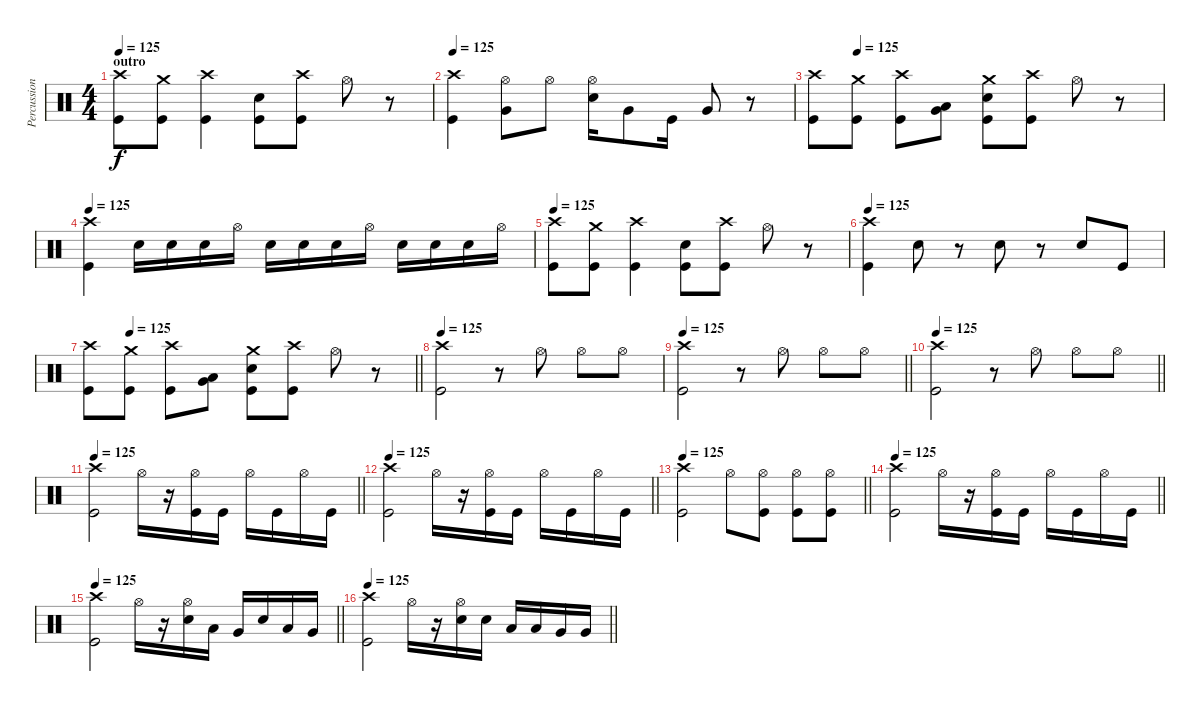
\track ("Percussions" "Percussion") {instrument percussion}
\staff {score}
\articulation defaults
\ts (4 4)
\section ("" "outro")
\tempo 125
\clef neutral
\ks c
("Crash high (hit)" "Kick (hit)").8{dy f} ("Crash medium (hit)" "Kick (hit)").8 ("Crash high (hit)" "Kick (hit)").4 ("Electric Snare (hit)" "Kick (hit)").8 ("Crash high (hit)" "Kick (hit)").8 "Hi-Hat (open)".8 r.8 |
\tempo 125
("Crash high (hit)" "Kick (hit)").4 ("Hi-Hat (open)" "Very Low Tom (hit)").8 "Hi-Hat (open)".8 ("Hi-Hat (open)" "Electric Snare (hit)").16 "Very Low Tom (hit)".8 "Kick (hit)".16 "Very Low Tom (hit)".8 r.8 |
\tempo (125 0.125)
("Crash high (hit)" "Kick (hit)").8 ("Crash medium (hit)" "Kick (hit)").8 ("Crash high (hit)" "Kick (hit)").8 ("Very Low Tom (hit)" "Low Floor Tom (hit)").8 ("Crash medium (hit)" "Electric Snare (hit)" "Kick (hit)").8 ("Crash high (hit)" "Kick (hit)").8 "Hi-Hat (open)".8 r.8 |
\tempo 125
("Crash high (hit)" "Kick (hit)").4 "Electric Snare (hit)".16 "Electric Snare (hit)".16 "Electric Snare (hit)".16 "Hi-Hat (open)".16 "Electric Snare (hit)".16 "Electric Snare (hit)".16 "Electric Snare (hit)".16 "Hi-Hat (open)".16 "Electric Snare (hit)".16 "Electric Snare (hit)".16 "Electric Snare (hit)".16 "Hi-Hat (open)".16 |
\tempo 125
("Crash high (hit)" "Kick (hit)").8 ("Crash medium (hit)" "Kick (hit)").8 ("Crash high (hit)" "Kick (hit)").4 ("Electric Snare (hit)" "Kick (hit)").8 ("Crash high (hit)" "Kick (hit)").8 "Hi-Hat (open)".8 r.8 |
\tempo 125
("Crash high (hit)" "Kick (hit)").4 "Electric Snare (hit)".8 r.8 "Electric Snare (hit)".8 r.8 "Electric Snare (hit)".8 "Kick (hit)".8 |
\tempo (125 0.125)
\barLineRight lightlight
("Crash high (hit)" "Kick (hit)").8 ("Crash medium (hit)" "Kick (hit)").8 ("Crash high (hit)" "Kick (hit)").8 ("Very Low Tom (hit)" "Low Floor Tom (hit)").8 ("Crash medium (hit)" "Electric Snare (hit)" "Kick (hit)").8 ("Crash high (hit)" "Kick (hit)").8 "Hi-Hat (open)".8 r.8 |
\section ("" "")
\tempo 125
("Crash high (hit)" "Kick (hit)").2 r.8 "Hi-Hat (open)".8 "Hi-Hat (open)".8 "Hi-Hat (open)".8 |
\tempo 125
\barLineRight lightlight
("Crash high (hit)" "Kick (hit)").2 r.8 "Hi-Hat (open)".8 "Hi-Hat (open)".8 "Hi-Hat (open)".8 |
\tempo 125
\barLineRight lightlight
("Crash high (hit)" "Kick (hit)").2 r.8 "Hi-Hat (open)".8 "Hi-Hat (open)".8 "Hi-Hat (open)".8 |
\tempo 125
\barLineRight lightlight
("Crash high (hit)" "Kick (hit)").2 "Hi-Hat (open)".16 r.16 ("Hi-Hat (open)" "Kick (hit)").16 "Kick (hit)".16 "Hi-Hat (open)".16 "Kick (hit)".16 "Hi-Hat (open)".16 "Kick (hit)".16 |
\tempo 125
\barLineRight lightlight
("Crash high (hit)" "Kick (hit)").2 "Hi-Hat (open)".16 r.16 ("Hi-Hat (open)" "Kick (hit)").16 "Kick (hit)".16 "Hi-Hat (open)".16 "Kick (hit)".16 "Hi-Hat (open)".16 "Kick (hit)".16 |
\tempo 125
\barLineRight lightlight
("Crash high (hit)" "Kick (hit)").2 "Hi-Hat (open)".8 ("Hi-Hat (open)" "Kick (hit)").8 ("Hi-Hat (open)" "Kick (hit)").8 ("Hi-Hat (open)" "Kick (hit)").8 |
\tempo 125
\barLineRight lightlight
("Crash high (hit)" "Kick (hit)").2 "Hi-Hat (open)".16 r.16 ("Hi-Hat (open)" "Kick (hit)").16 "Kick (hit)".16 "Hi-Hat (open)".16 "Kick (hit)".16 "Hi-Hat (open)".16 "Kick (hit)".16 |
\tempo 125
\barLineRight lightlight
("Crash high (hit)" "Kick (hit)").2 "Hi-Hat (open)".16 r.16 ("Hi-Hat (open)" "Electric Snare (hit)").16 "Low Tom (hit)".16 "Very Low Tom (hit)".16 "Electric Snare (hit)".16 "Low Tom (hit)".16 "Very Low Tom (hit)".16 |
\tempo 125
\barLineRight lightlight
("Crash high (hit)" "Kick (hit)").2 "Hi-Hat (open)".16 r.16 ("Hi-Hat (open)" "Electric Snare (hit)").16 "Electric Snare (hit)".16 "Low Tom (hit)".16 "Low Tom (hit)".16 "Very Low Tom (hit)".16 "Very Low Tom (hit)".16
